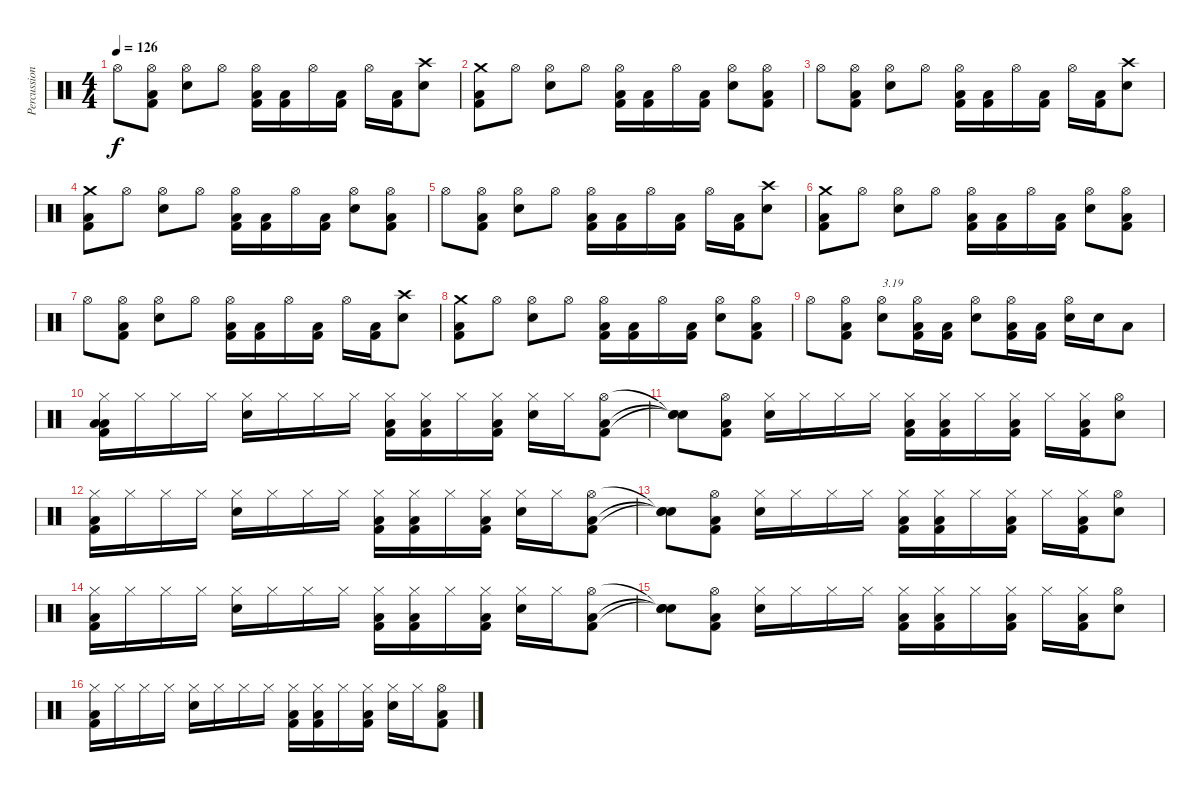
\track ("Percussions" "Percussion") {instrument percussion}
\staff {score}
\articulation defaults
\ts (4 4)
\tempo 126
\clef neutral
\ks c "Hi-Hat (open)".8{dy f}
("Kick (hit) 2" "Low Floor Tom (hit)" "Hi-Hat (open)").8 ("Snare (hit) 2" "Hi-Hat (open)").8 "Hi-Hat (open)".8 ("Kick (hit) 2" "Low Floor Tom (hit)" "Hi-Hat (open)").16 ("Kick (hit) 2" "Low Floor Tom (hit)").16 "Hi-Hat (open)".16 ("Kick (hit) 2" "Low Floor Tom (hit)").16 "Hi-Hat (open)".16 ("Kick (hit) 2" "Low Floor Tom (hit)").16 ("Snare (hit) 2" "Crash high (hit)").8 |
("Kick (hit) 2" "Low Floor Tom (hit)" "Crash medium (hit)").8 "Hi-Hat (open)".8 ("Snare (hit) 2" "Hi-Hat (open)").8 "Hi-Hat (open)".8 ("Kick (hit) 2" "Low Floor Tom (hit)" "Hi-Hat (open)").16 ("Kick (hit) 2" "Low Floor Tom (hit)").16 "Hi-Hat (open)".16 ("Kick (hit) 2" "Low Floor Tom (hit)").16 ("Snare (hit) 2" "Hi-Hat (open)").8 ("Kick (hit) 2" "Low Floor Tom (hit)" "Hi-Hat (open)").8 |
"Hi-Hat (open)".8 ("Kick (hit) 2" "Low Floor Tom (hit)" "Hi-Hat (open)").8 ("Snare (hit) 2" "Hi-Hat (open)").8 "Hi-Hat (open)".8 ("Kick (hit) 2" "Low Floor Tom (hit)" "Hi-Hat (open)").16 ("Kick (hit) 2" "Low Floor Tom (hit)").16 "Hi-Hat (open)".16 ("Kick (hit) 2" "Low Floor Tom (hit)").16 "Hi-Hat (open)".16 ("Kick (hit) 2" "Low Floor Tom (hit)").16 ("Snare (hit) 2" "Crash high (hit)").8 |
("Kick (hit) 2" "Low Floor Tom (hit)" "Crash medium (hit)").8 "Hi-Hat (open)".8 ("Snare (hit) 2" "Hi-Hat (open)").8 "Hi-Hat (open)".8 ("Kick (hit) 2" "Low Floor Tom (hit)" "Hi-Hat (open)").16 ("Kick (hit) 2" "Low Floor Tom (hit)").16 "Hi-Hat (open)".16 ("Kick (hit) 2" "Low Floor Tom (hit)").16 ("Snare (hit) 2" "Hi-Hat (open)").8 ("Kick (hit) 2" "Low Floor Tom (hit)" "Hi-Hat (open)").8 |
"Hi-Hat (open)".8 ("Kick (hit) 2" "Low Floor Tom (hit)" "Hi-Hat (open)").8 ("Snare (hit) 2" "Hi-Hat (open)").8 "Hi-Hat (open)".8 ("Kick (hit) 2" "Low Floor Tom (hit)" "Hi-Hat (open)").16 ("Kick (hit) 2" "Low Floor Tom (hit)").16 "Hi-Hat (open)".16 ("Kick (hit) 2" "Low Floor Tom (hit)").16 "Hi-Hat (open)".16 ("Kick (hit) 2" "Low Floor Tom (hit)").16 ("Snare (hit) 2" "Crash high (hit)").8 |
("Kick (hit) 2" "Low Floor Tom (hit)" "Crash medium (hit)").8 "Hi-Hat (open)".8 ("Snare (hit) 2" "Hi-Hat (open)").8 "Hi-Hat (open)".8 ("Kick (hit) 2" "Low Floor Tom (hit)" "Hi-Hat (open)").16 ("Kick (hit) 2" "Low Floor Tom (hit)").16 "Hi-Hat (open)".16 ("Kick (hit) 2" "Low Floor Tom (hit)").16 ("Snare (hit) 2" "Hi-Hat (open)").8 ("Kick (hit) 2" "Low Floor Tom (hit)" "Hi-Hat (open)").8 |
"Hi-Hat (open)".8 ("Kick (hit) 2" "Low Floor Tom (hit)" "Hi-Hat (open)").8 ("Snare (hit) 2" "Hi-Hat (open)").8 "Hi-Hat (open)".8 ("Kick (hit) 2" "Low Floor Tom (hit)" "Hi-Hat (open)").16 ("Kick (hit) 2" "Low Floor Tom (hit)").16 "Hi-Hat (open)".16 ("Kick (hit) 2" "Low Floor Tom (hit)").16 "Hi-Hat (open)".16 ("Kick (hit) 2" "Low Floor Tom (hit)").16 ("Snare (hit) 2" "Crash high (hit)").8 |
("Kick (hit) 2" "Low Floor Tom (hit)" "Crash medium (hit)").8 "Hi-Hat (open)".8 ("Snare (hit) 2" "Hi-Hat (open)").8 "Hi-Hat (open)".8 ("Kick (hit) 2" "Low Floor Tom (hit)" "Hi-Hat (open)").16 ("Kick (hit) 2" "Low Floor Tom (hit)").16 "Hi-Hat (open)".16 ("Kick (hit) 2" "Low Floor Tom (hit)").16 ("Snare (hit) 2" "Hi-Hat (open)").8 ("Kick (hit) 2" "Low Floor Tom (hit)" "Hi-Hat (open)").8 |
"Hi-Hat (open)".8 ("Kick (hit) 2" "Low Floor Tom (hit)" "Hi-Hat (open)").8 ("Snare (hit) 2" "Hi-Hat (open)").8{txt "3.19"} ("Kick (hit) 2" "Low Floor Tom (hit)" "Hi-Hat (open)").16 ("Kick (hit) 2" "Low Floor Tom (hit)").16 ("Snare (hit) 2" "Hi-Hat (open)").8 ("Kick (hit) 2" "Low Floor Tom (hit)" "Hi-Hat (open)").16 ("Kick (hit) 2" "Low Floor Tom (hit)").16 ("Snare (hit) 2" "Hi-Hat (open)").16 "Snare (hit) 2".16 "Low Tom (hit)".8 |
("Kick (hit) 2" "Low Floor Tom (hit)" "Low Tom (hit)" "Hi-Hat (closed)").16 "Hi-Hat (closed)".16 "Hi-Hat (closed)".16 "Hi-Hat (closed)".16 ("Snare (hit) 2" "Hi-Hat (closed)").16 "Hi-Hat (closed)".16 "Hi-Hat (closed)".16 "Hi-Hat (closed)".16 ("Kick (hit) 2" "Low Floor Tom (hit)" "Hi-Hat (closed)").16 ("Kick (hit) 2" "Low Floor Tom (hit)" "Hi-Hat (closed)").16 "Hi-Hat (closed)".16 ("Kick (hit) 2" "Low Floor Tom (hit)" "Hi-Hat (closed)").16 ("Snare (hit) 2" "Hi-Hat (closed)").16 "Hi-Hat (closed)".16 ("Kick (hit) 2" "Low Floor Tom (hit)" "Hi-Hat (open)").8 |
("Snare (hit)"{t} "Snare (hit)"{t} "Snare (hit)"{t}).8 ("Kick (hit) 2" "Low Floor Tom (hit)" "Hi-Hat (open)").8 ("Snare (hit) 2" "Hi-Hat (closed)").16 "Hi-Hat (closed)".16 "Hi-Hat (closed)".16 "Hi-Hat (closed)".16 ("Kick (hit) 2" "Low Floor Tom (hit)" "Hi-Hat (closed)").16 ("Kick (hit) 2" "Low Floor Tom (hit)" "Hi-Hat (closed)").16 "Hi-Hat (closed)".16 ("Kick (hit) 2" "Low Floor Tom (hit)" "Hi-Hat (closed)").16 "Hi-Hat (closed)".16 ("Kick (hit) 2" "Low Floor Tom (hit)" "Hi-Hat (closed)").16 ("Snare (hit) 2" "Hi-Hat (open)").8 |
("Kick (hit) 2" "Low Floor Tom (hit)" "Hi-Hat (closed)").16 "Hi-Hat (closed)".16 "Hi-Hat (closed)".16 "Hi-Hat (closed)".16 ("Snare (hit) 2" "Hi-Hat (closed)").16 "Hi-Hat (closed)".16 "Hi-Hat (closed)".16 "Hi-Hat (closed)".16 ("Kick (hit) 2" "Low Floor Tom (hit)" "Hi-Hat (closed)").16 ("Kick (hit) 2" "Low Floor Tom (hit)" "Hi-Hat (closed)").16 "Hi-Hat (closed)".16 ("Kick (hit) 2" "Low Floor Tom (hit)" "Hi-Hat (closed)").16 ("Snare (hit) 2" "Hi-Hat (closed)").16 "Hi-Hat (closed)".16 ("Kick (hit) 2" "Low Floor Tom (hit)" "Hi-Hat (open)").8 |
("Snare (hit)"{t} "Snare (hit)"{t} "Snare (hit)"{t}).8 ("Kick (hit) 2" "Low Floor Tom (hit)" "Hi-Hat (open)").8 ("Snare (hit) 2" "Hi-Hat (closed)").16 "Hi-Hat (closed)".16 "Hi-Hat (closed)".16 "Hi-Hat (closed)".16 ("Kick (hit) 2" "Low Floor Tom (hit)" "Hi-Hat (closed)").16 ("Kick (hit) 2" "Low Floor Tom (hit)" "Hi-Hat (closed)").16 "Hi-Hat (closed)".16 ("Kick (hit) 2" "Low Floor Tom (hit)" "Hi-Hat (closed)").16 "Hi-Hat (closed)".16 ("Kick (hit) 2" "Low Floor Tom (hit)" "Hi-Hat (closed)").16 ("Snare (hit) 2" "Hi-Hat (open)").8 |
("Kick (hit) 2" "Low Floor Tom (hit)" "Hi-Hat (closed)").16 "Hi-Hat (closed)".16 "Hi-Hat (closed)".16 "Hi-Hat (closed)".16 ("Snare (hit) 2" "Hi-Hat (closed)").16 "Hi-Hat (closed)".16 "Hi-Hat (closed)".16 "Hi-Hat (closed)".16 ("Kick (hit) 2" "Low Floor Tom (hit)" "Hi-Hat (closed)").16 ("Kick (hit) 2" "Low Floor Tom (hit)" "Hi-Hat (closed)").16 "Hi-Hat (closed)".16 ("Kick (hit) 2" "Low Floor Tom (hit)" "Hi-Hat (closed)").16 ("Snare (hit) 2" "Hi-Hat (closed)").16 "Hi-Hat (closed)".16 ("Kick (hit) 2" "Low Floor Tom (hit)" "Hi-Hat (open)").8 |
("Snare (hit)"{t} "Snare (hit)"{t} "Snare (hit)"{t}).8 ("Kick (hit) 2" "Low Floor Tom (hit)" "Hi-Hat (open)").8 ("Snare (hit) 2" "Hi-Hat (closed)").16 "Hi-Hat (closed)".16 "Hi-Hat (closed)".16 "Hi-Hat (closed)".16 ("Kick (hit) 2" "Low Floor Tom (hit)" "Hi-Hat (closed)").16 ("Kick (hit) 2" "Low Floor Tom (hit)" "Hi-Hat (closed)").16 "Hi-Hat (closed)".16 ("Kick (hit) 2" "Low Floor Tom (hit)" "Hi-Hat (closed)").16 "Hi-Hat (closed)".16 ("Kick (hit) 2" "Low Floor Tom (hit)" "Hi-Hat (closed)").16 ("Snare (hit) 2" "Hi-Hat (open)").8 |
("Kick (hit) 2" "Low Floor Tom (hit)" "Hi-Hat (closed)").16 "Hi-Hat (closed)".16 "Hi-Hat (closed)".16 "Hi-Hat (closed)".16 ("Snare (hit) 2" "Hi-Hat (closed)").16 "Hi-Hat (closed)".16 "Hi-Hat (closed)".16 "Hi-Hat (closed)".16 ("Kick (hit) 2" "Low Floor Tom (hit)" "Hi-Hat (closed)").16 ("Kick (hit) 2" "Low Floor Tom (hit)" "Hi-Hat (closed)").16 "Hi-Hat (closed)".16 ("Kick (hit) 2" "Low Floor Tom (hit)" "Hi-Hat (closed)").16 ("Snare (hit) 2" "Hi-Hat (closed)").16 "Hi-Hat (closed)".16 ("Kick (hit) 2" "Low Floor Tom (hit)" "Hi-Hat (open)").8
